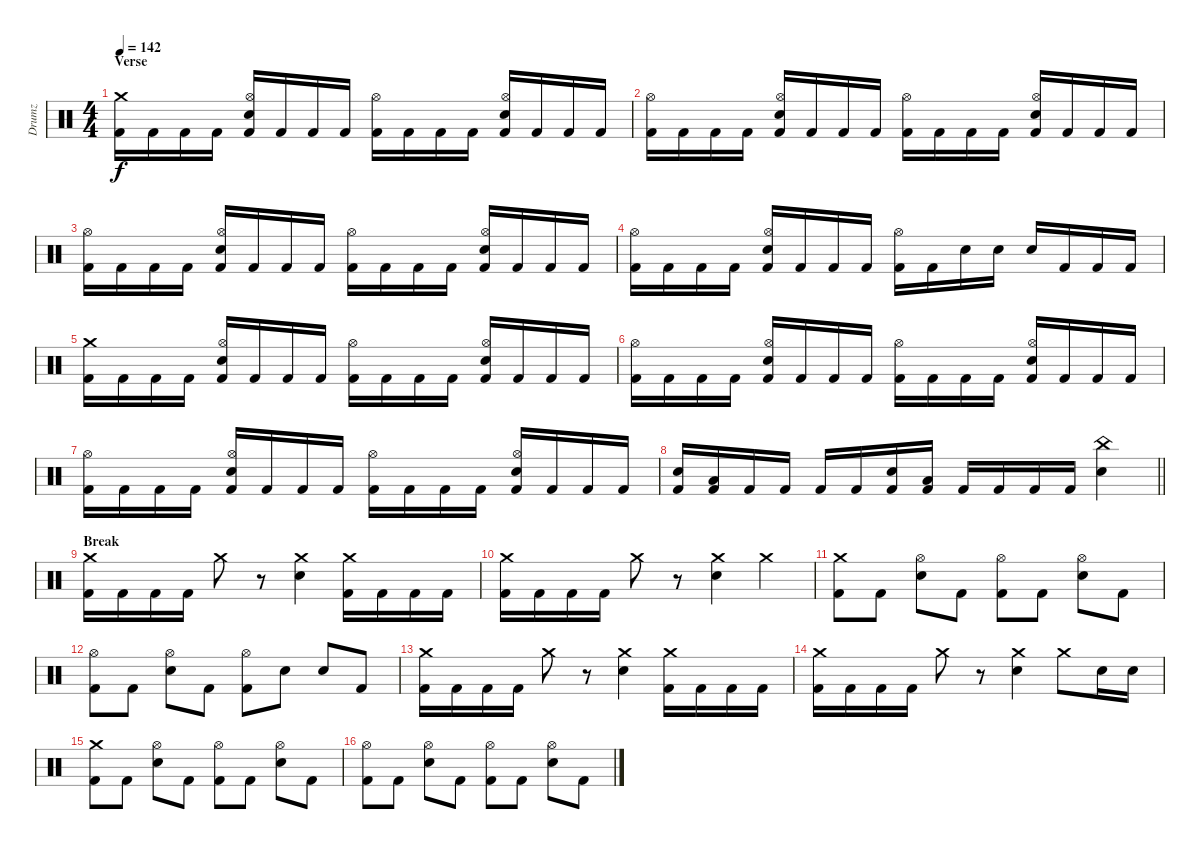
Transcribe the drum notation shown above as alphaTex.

\track ("Drumz" "Drumz") {instrument percussion}
\staff {score}
\articulation defaults
\ts (4 4)
\section ("" "Verse")
\tempo 142
\clef neutral
\ks c
("Crash medium (hit)" "Kick (hit) 2").16{dy f} "Kick (hit) 2".16 "Kick (hit) 2".16 "Kick (hit) 2".16 ("Hi-Hat (open)" "Electric Snare (hit)" "Kick (hit) 2").16 "Kick (hit) 2".16 "Kick (hit) 2".16 "Kick (hit) 2".16 ("Hi-Hat (open)" "Kick (hit) 2").16 "Kick (hit) 2".16 "Kick (hit) 2".16 "Kick (hit) 2".16 ("Hi-Hat (open)" "Electric Snare (hit)" "Kick (hit) 2").16 "Kick (hit) 2".16 "Kick (hit) 2".16 "Kick (hit) 2".16 |
("Hi-Hat (open)" "Kick (hit) 2").16 "Kick (hit) 2".16 "Kick (hit) 2".16 "Kick (hit) 2".16 ("Hi-Hat (open)" "Electric Snare (hit)" "Kick (hit) 2").16 "Kick (hit) 2".16 "Kick (hit) 2".16 "Kick (hit) 2".16 ("Hi-Hat (open)" "Kick (hit) 2").16 "Kick (hit) 2".16 "Kick (hit) 2".16 "Kick (hit) 2".16 ("Hi-Hat (open)" "Electric Snare (hit)" "Kick (hit) 2").16 "Kick (hit) 2".16 "Kick (hit) 2".16 "Kick (hit) 2".16 |
("Hi-Hat (open)" "Kick (hit) 2").16 "Kick (hit) 2".16 "Kick (hit) 2".16 "Kick (hit) 2".16 ("Hi-Hat (open)" "Electric Snare (hit)" "Kick (hit) 2").16 "Kick (hit) 2".16 "Kick (hit) 2".16 "Kick (hit) 2".16 ("Hi-Hat (open)" "Kick (hit) 2").16 "Kick (hit) 2".16 "Kick (hit) 2".16 "Kick (hit) 2".16 ("Hi-Hat (open)" "Electric Snare (hit)" "Kick (hit) 2").16 "Kick (hit) 2".16 "Kick (hit) 2".16 "Kick (hit) 2".16 |
("Hi-Hat (open)" "Kick (hit) 2").16 "Kick (hit) 2".16 "Kick (hit) 2".16 "Kick (hit) 2".16 ("Hi-Hat (open)" "Electric Snare (hit)" "Kick (hit) 2").16 "Kick (hit) 2".16 "Kick (hit) 2".16 "Kick (hit) 2".16 ("Hi-Hat (open)" "Kick (hit) 2").16 "Kick (hit) 2".16 "Electric Snare (hit)".16 "Electric Snare (hit)".16 "Electric Snare (hit)".16 "Kick (hit) 2".16 "Kick (hit) 2".16 "Kick (hit) 2".16 |
("Crash medium (hit)" "Kick (hit) 2").16 "Kick (hit) 2".16 "Kick (hit) 2".16 "Kick (hit) 2".16 ("Hi-Hat (open)" "Electric Snare (hit)" "Kick (hit) 2").16 "Kick (hit) 2".16 "Kick (hit) 2".16 "Kick (hit) 2".16 ("Hi-Hat (open)" "Kick (hit) 2").16 "Kick (hit) 2".16 "Kick (hit) 2".16 "Kick (hit) 2".16 ("Hi-Hat (open)" "Electric Snare (hit)" "Kick (hit) 2").16 "Kick (hit) 2".16 "Kick (hit) 2".16 "Kick (hit) 2".16 |
("Hi-Hat (open)" "Kick (hit) 2").16 "Kick (hit) 2".16 "Kick (hit) 2".16 "Kick (hit) 2".16 ("Hi-Hat (open)" "Electric Snare (hit)" "Kick (hit) 2").16 "Kick (hit) 2".16 "Kick (hit) 2".16 "Kick (hit) 2".16 ("Hi-Hat (open)" "Kick (hit) 2").16 "Kick (hit) 2".16 "Kick (hit) 2".16 "Kick (hit) 2".16 ("Hi-Hat (open)" "Electric Snare (hit)" "Kick (hit) 2").16 "Kick (hit) 2".16 "Kick (hit) 2".16 "Kick (hit) 2".16 |
("Hi-Hat (open)" "Kick (hit) 2").16 "Kick (hit) 2".16 "Kick (hit) 2".16 "Kick (hit) 2".16 ("Hi-Hat (open)" "Electric Snare (hit)" "Kick (hit) 2").16 "Kick (hit) 2".16 "Kick (hit) 2".16 "Kick (hit) 2".16 ("Hi-Hat (open)" "Kick (hit) 2").16 "Kick (hit) 2".16 "Kick (hit) 2".16 "Kick (hit) 2".16 ("Hi-Hat (open)" "Electric Snare (hit)" "Kick (hit) 2").16 "Kick (hit) 2".16 "Kick (hit) 2".16 "Kick (hit) 2".16 |
\barLineRight lightlight
("Electric Snare (hit)" "Kick (hit) 2").16 ("Low Floor Tom (hit)" "Kick (hit) 2").16 "Kick (hit) 2".16 "Kick (hit) 2".16 "Kick (hit) 2".16 "Kick (hit) 2".16 ("Electric Snare (hit)" "Kick (hit) 2").16 ("Low Floor Tom (hit)" "Kick (hit) 2").16 "Kick (hit) 2".16 "Kick (hit) 2".16 "Kick (hit) 2".16 "Kick (hit) 2".16 ("China (hit)" "Electric Snare (hit)").4 |
\section ("" "Break")
("Crash medium (hit)" "Kick (hit) 2").16 "Kick (hit) 2".16 "Kick (hit) 2".16 "Kick (hit) 2".16 "Crash medium (hit)".8 r.8 ("Crash medium (hit)" "Electric Snare (hit)").4 ("Crash medium (hit)" "Kick (hit) 2").16 "Kick (hit) 2".16 "Kick (hit) 2".16 "Kick (hit) 2".16 |
("Crash medium (hit)" "Kick (hit) 2").16 "Kick (hit) 2".16 "Kick (hit) 2".16 "Kick (hit) 2".16 "Crash medium (hit)".8 r.8 ("Crash medium (hit)" "Electric Snare (hit)").4 "Crash medium (hit)".4 |
("Crash medium (hit)" "Kick (hit) 2").8 "Kick (hit) 2".8 ("Hi-Hat (open)" "Electric Snare (hit)").8 "Kick (hit) 2".8 ("Hi-Hat (open)" "Kick (hit) 2").8 "Kick (hit) 2".8 ("Hi-Hat (open)" "Electric Snare (hit)").8 "Kick (hit) 2".8 |
("Hi-Hat (open)" "Kick (hit) 2").8 "Kick (hit) 2".8 ("Hi-Hat (open)" "Electric Snare (hit)").8 "Kick (hit) 2".8 ("Hi-Hat (open)" "Kick (hit) 2").8 "Electric Snare (hit)".8 "Electric Snare (hit)".8 "Kick (hit) 2".8 |
("Crash medium (hit)" "Kick (hit) 2").16 "Kick (hit) 2".16 "Kick (hit) 2".16 "Kick (hit) 2".16 "Crash medium (hit)".8 r.8 ("Crash medium (hit)" "Electric Snare (hit)").4 ("Crash medium (hit)" "Kick (hit) 2").16 "Kick (hit) 2".16 "Kick (hit) 2".16 "Kick (hit) 2".16 |
("Crash medium (hit)" "Kick (hit) 2").16 "Kick (hit) 2".16 "Kick (hit) 2".16 "Kick (hit) 2".16 "Crash medium (hit)".8 r.8 ("Crash medium (hit)" "Electric Snare (hit)").4 "Crash medium (hit)".8 "Electric Snare (hit)".16 "Electric Snare (hit)".16 |
("Crash medium (hit)" "Kick (hit) 2").8 "Kick (hit) 2".8 ("Hi-Hat (open)" "Electric Snare (hit)").8 "Kick (hit) 2".8 ("Hi-Hat (open)" "Kick (hit) 2").8 "Kick (hit) 2".8 ("Hi-Hat (open)" "Electric Snare (hit)").8 "Kick (hit) 2".8 |
("Hi-Hat (open)" "Kick (hit) 2").8 "Kick (hit) 2".8 ("Hi-Hat (open)" "Electric Snare (hit)").8 "Kick (hit) 2".8 ("Hi-Hat (open)" "Kick (hit) 2").8 "Kick (hit) 2".8 ("Hi-Hat (open)" "Electric Snare (hit)").8 "Kick (hit) 2".8
